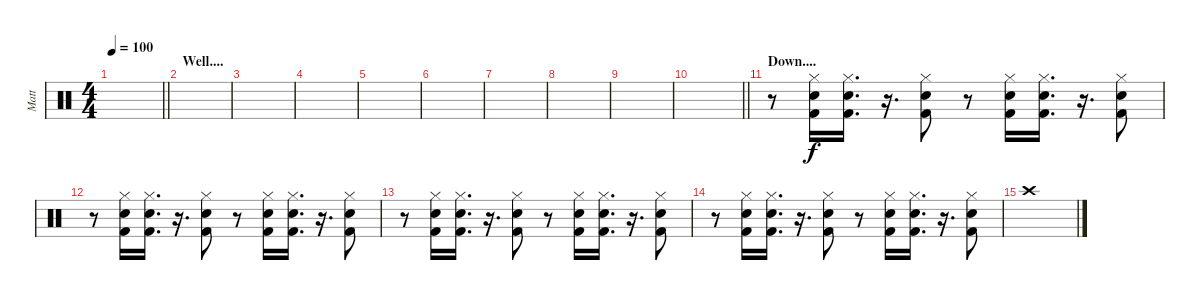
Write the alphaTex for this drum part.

\track ("Matt" "Matt") {instrument percussion}
\staff {score}
\articulation defaults
\ts (4 4)
\tempo 100
\clef neutral
\barLineRight lightlight
\ks c
|
\section ("" "Well....")
|
|
|
|
|
|
|
|
\barLineRight lightlight
|
\section ("" "Down....")
r.8 ("Hi-Hat (closed)" "Kick (hit) 2" "Electric Snare (hit)").16 ("Hi-Hat (closed)" "Kick (hit) 2" "Electric Snare (hit)").16{d} r.16{d} ("Hi-Hat (closed)" "Kick (hit) 2" "Electric Snare (hit)").8 r.8 ("Hi-Hat (closed)" "Kick (hit) 2" "Electric Snare (hit)").16 ("Hi-Hat (closed)" "Kick (hit) 2" "Electric Snare (hit)").16{d} r.16{d} ("Hi-Hat (closed)" "Kick (hit) 2" "Electric Snare (hit)").8 |
r.8 ("Hi-Hat (closed)" "Kick (hit) 2" "Electric Snare (hit)").16 ("Hi-Hat (closed)" "Kick (hit) 2" "Electric Snare (hit)").16{d} r.16{d} ("Hi-Hat (closed)" "Kick (hit) 2" "Electric Snare (hit)").8 r.8 ("Hi-Hat (closed)" "Kick (hit) 2" "Electric Snare (hit)").16 ("Hi-Hat (closed)" "Kick (hit) 2" "Electric Snare (hit)").16{d} r.16{d} ("Hi-Hat (closed)" "Kick (hit) 2" "Electric Snare (hit)").8 |
r.8 ("Hi-Hat (closed)" "Kick (hit) 2" "Electric Snare (hit)").16 ("Hi-Hat (closed)" "Kick (hit) 2" "Electric Snare (hit)").16{d} r.16{d} ("Hi-Hat (closed)" "Kick (hit) 2" "Electric Snare (hit)").8 r.8 ("Hi-Hat (closed)" "Kick (hit) 2" "Electric Snare (hit)").16 ("Hi-Hat (closed)" "Kick (hit) 2" "Electric Snare (hit)").16{d} r.16{d} ("Hi-Hat (closed)" "Kick (hit) 2" "Electric Snare (hit)").8 |
r.8 ("Hi-Hat (closed)" "Kick (hit) 2" "Electric Snare (hit)").16 ("Hi-Hat (closed)" "Kick (hit) 2" "Electric Snare (hit)").16{d} r.16{d} ("Hi-Hat (closed)" "Kick (hit) 2" "Electric Snare (hit)").8 r.8 ("Hi-Hat (closed)" "Kick (hit) 2" "Electric Snare (hit)").16 ("Hi-Hat (closed)" "Kick (hit) 2" "Electric Snare (hit)").16{d} r.16{d} ("Hi-Hat (closed)" "Kick (hit) 2" "Electric Snare (hit)").8 |
"Crash high (hit)".1
